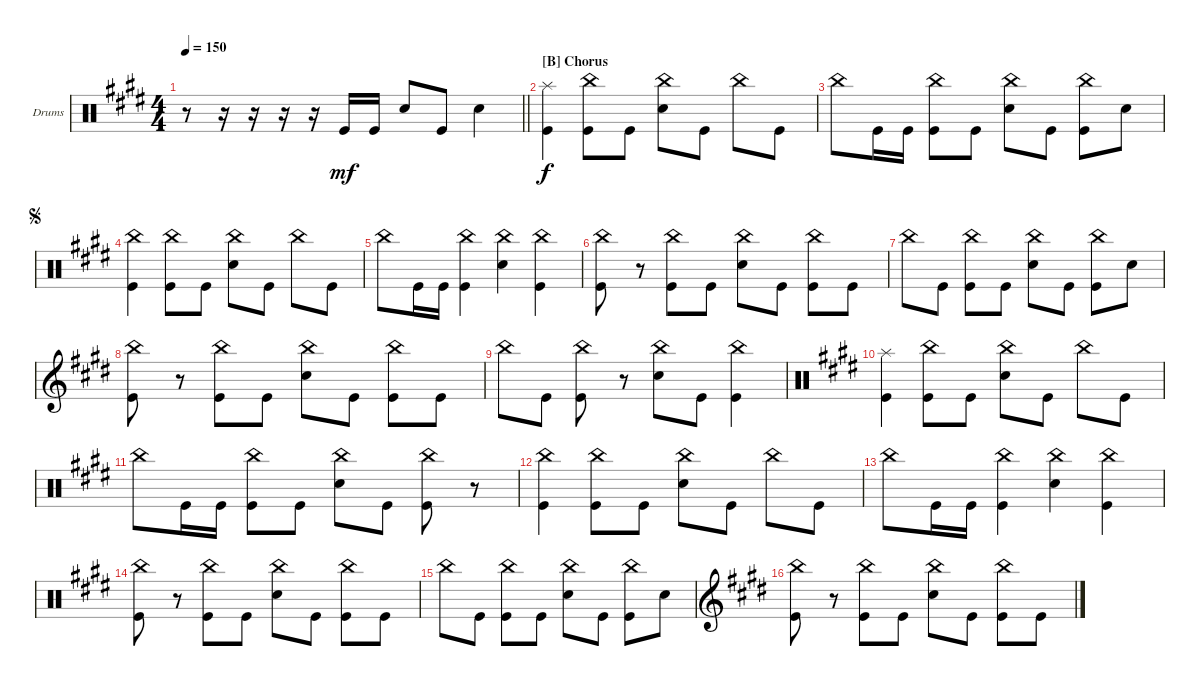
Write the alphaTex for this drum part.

\bracketExtendMode groupsimilarinstruments
\firstSystemTrackNameOrientation horizontal
\otherSystemsTrackNameOrientation horizontal
\track ("Drums" "Drums") {instrument percussion}
\staff {score}
\articulation defaults
\ts (4 4)
\tempo 150
\clef neutral
\scale
0.333333
\barLineRight lightlight
\ks e
r.8{dy mf} r.16 r.16 r.16 r.16 "Kick (hit)".16 "Kick (hit)".16 "Snare (hit) 2".8 "Kick (hit)".8 "Snare (hit) 2".4 |
\section ("B" "Chorus")
\scale
0.333333 ("Kick (hit)" "Splash (hit)").4{dy f} ("Kick (hit)" "China (hit)").8 "Kick (hit)".8 ("Snare (hit) 2" "China (hit)").8 "Kick (hit)".8 "China (hit)".8 "Kick (hit)".8 |
\scale
0.333333 "China (hit)".8 "Kick (hit)".16 "Kick (hit)".16 ("Kick (hit)" "China (hit)").8 "Kick (hit)".8 ("Snare (hit) 2" "China (hit)").8 "Kick (hit)".8 ("Kick (hit)" "China (hit)").8 "Snare (hit) 2".8 |
\jump segno
\scale
0.333333 ("Kick (hit)" "China (hit)").4 ("Kick (hit)" "China (hit)").8 "Kick (hit)".8 ("Snare (hit) 2" "China (hit)").8 "Kick (hit)".8 "China (hit)".8 "Kick (hit)".8 |
\scale
0.333333 "China (hit)".8 "Kick (hit)".16 "Kick (hit)".16 ("Kick (hit)" "China (hit)").4 ("Snare (hit) 2" "China (hit)").4 ("Kick (hit)" "China (hit)").4 |
\scale
0.333333 ("Kick (hit)" "China (hit)").8 r.8 ("Kick (hit)" "China (hit)").8 "Kick (hit)".8 ("Snare (hit) 2" "China (hit)").8 "Kick (hit)".8 ("Kick (hit)" "China (hit)").8 "Kick (hit)".8 |
\scale
0.333333 "China (hit)".8 "Kick (hit)".8 ("Kick (hit)" "China (hit)").8 "Kick (hit)".8 ("Snare (hit) 2" "China (hit)").8 "Kick (hit)".8 ("Kick (hit)" "China (hit)").8 "Snare (hit) 2".8 |
\clef g2
\scale
0.333333 ("Kick (hit)" "China (hit)").8 r.8 ("Kick (hit)" "China (hit)").8 "Kick (hit)".8 ("Snare (hit) 2" "China (hit)").8 "Kick (hit)".8 ("Kick (hit)" "China (hit)").8 "Kick (hit)".8 |
\scale
0.333333 "China (hit)".8 "Kick (hit)".8 ("China (hit)" "Kick (hit)").8 r.8 ("China (hit)" "Snare (hit) 2").8 "Kick (hit)".8 ("China (hit)" "Kick (hit)").4 |
\clef neutral
\scale
0.333333 ("Kick (hit)" "Splash (hit)").4 ("Kick (hit)" "China (hit)").8 "Kick (hit)".8 ("Snare (hit) 2" "China (hit)").8 "Kick (hit)".8 "China (hit)".8 "Kick (hit)".8 |
\scale
0.333333 "China (hit)".8 "Kick (hit)".16 "Kick (hit)".16 ("Kick (hit)" "China (hit)").8 "Kick (hit)".8 ("Snare (hit) 2" "China (hit)").8 "Kick (hit)".8 ("Kick (hit)" "China (hit)").8 r.8 |
\scale
0.333333 ("Kick (hit)" "China (hit)").4 ("Kick (hit)" "China (hit)").8 "Kick (hit)".8 ("Snare (hit) 2" "China (hit)").8 "Kick (hit)".8 "China (hit)".8 "Kick (hit)".8 |
\scale
0.333333 "China (hit)".8 "Kick (hit)".16 "Kick (hit)".16 ("Kick (hit)" "China (hit)").4 ("Snare (hit) 2" "China (hit)").4 ("Kick (hit)" "China (hit)").4 |
\scale
0.333333 ("Kick (hit)" "China (hit)").8 r.8 ("Kick (hit)" "China (hit)").8 "Kick (hit)".8 ("Snare (hit) 2" "China (hit)").8 "Kick (hit)".8 ("Kick (hit)" "China (hit)").8 "Kick (hit)".8 |
\scale
0.333333 "China (hit)".8 "Kick (hit)".8 ("Kick (hit)" "China (hit)").8 "Kick (hit)".8 ("Snare (hit) 2" "China (hit)").8 "Kick (hit)".8 ("Kick (hit)" "China (hit)").8 "Snare (hit) 2".8 |
\clef g2
\scale
0.220077 ("Kick (hit)" "China (hit)").8 r.8 ("Kick (hit)" "China (hit)").8 "Kick (hit)".8 ("Snare (hit) 2" "China (hit)").8 "Kick (hit)".8 ("Kick (hit)" "China (hit)").8 "Kick (hit)".8
